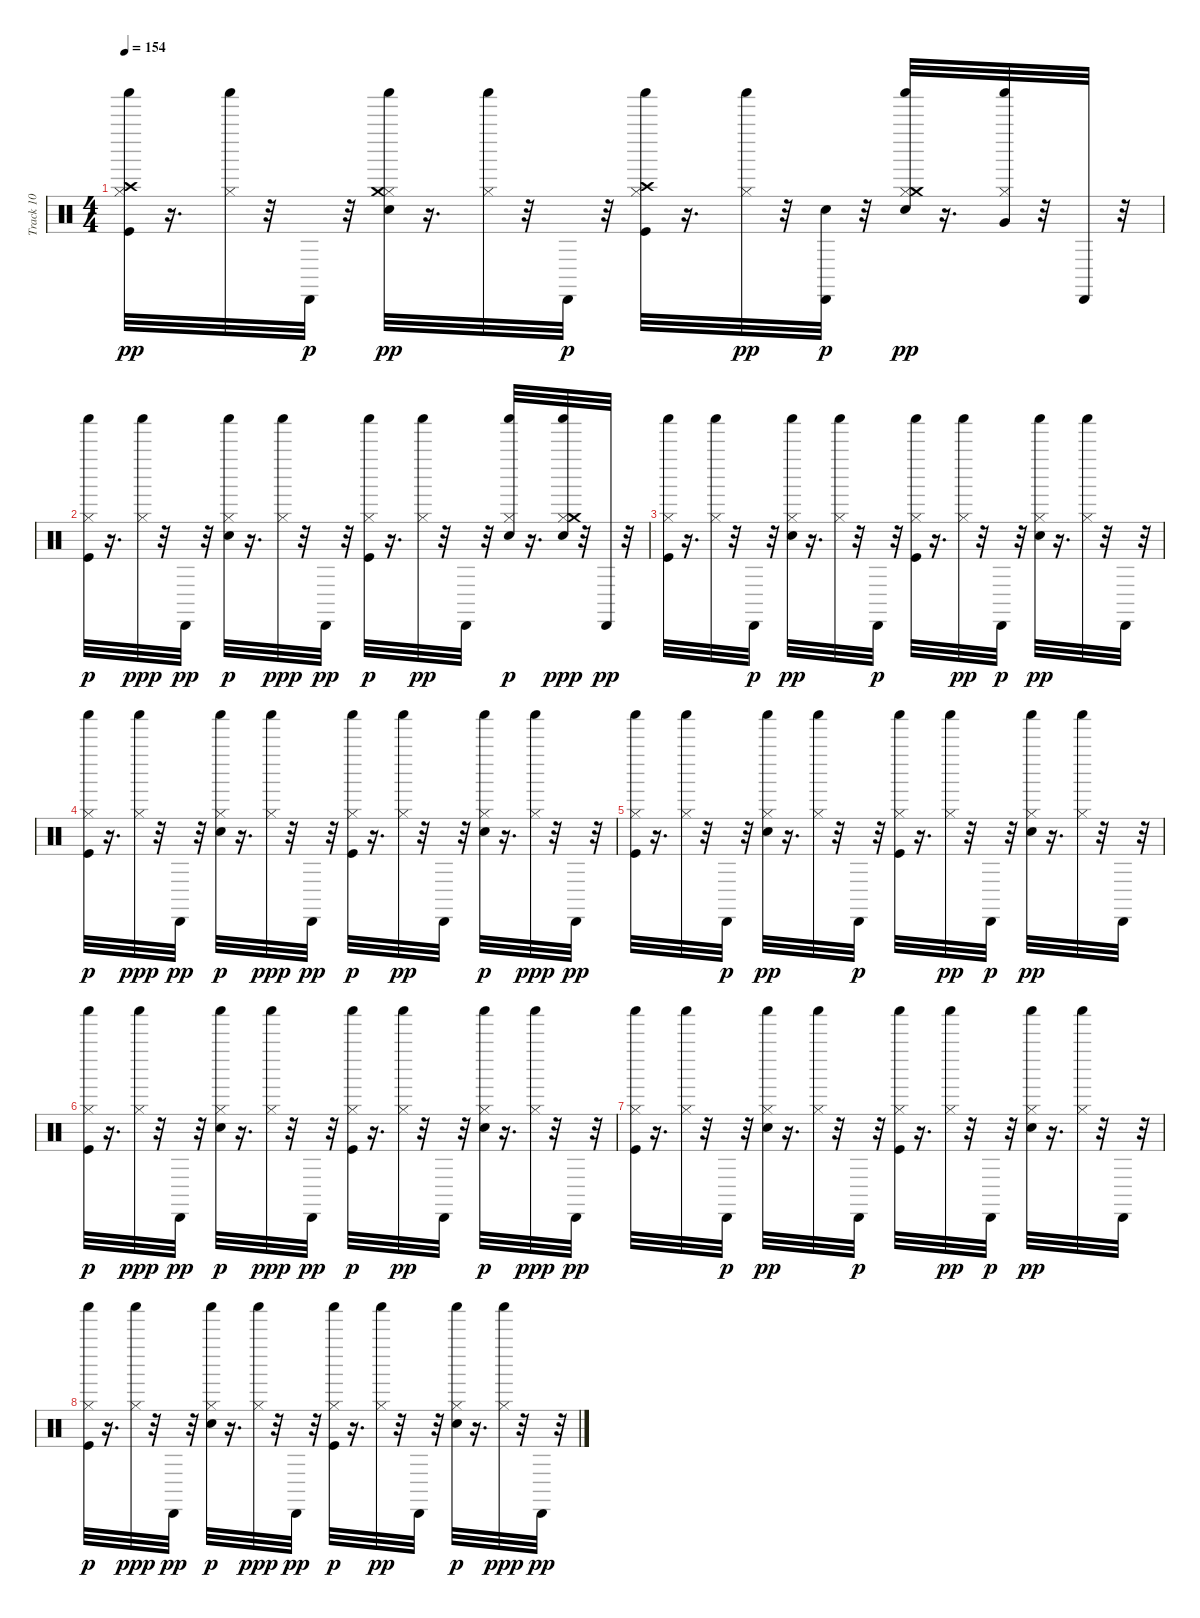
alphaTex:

\track ("Track 10" "Track 10") {instrument percussion}
\staff {score}
\articulation defaults
\ts (4 4)
\tempo 154
\clef neutral
\ks c
("Kick (hit)" "Hi-Hat (closed)" "Crash high (hit)" "Shaker (hit)").32{dy pp} r.16{d} ("Hi-Hat (closed)" "Shaker (hit)").32 r.32 "Cabasa (hit)".32{dy p} r.32 ("Electric Snare (hit)" "Hi-Hat (closed)" "Crash medium (hit)" "Shaker (hit)").32{dy pp} r.16{d} ("Hi-Hat (closed)" "Shaker (hit)").32 r.32 "Cabasa (hit)".32{dy p} r.32 ("Kick (hit)" "Hi-Hat (closed)" "Crash high (hit)" "Shaker (hit)").32 r.16{d} ("Hi-Hat (closed)" "Shaker (hit)").32{dy pp} r.32 ("Electric Snare (hit)" "Cabasa (hit)").32{dy p} r.32 ("Electric Snare (hit)" "Hi-Hat (closed)" "Crash medium (hit)" "Shaker (hit)").32{dy pp} r.16{d} ("Hi-Hat (closed)" "Very Low Tom (hit)" "Shaker (hit)").32 r.32 "Cabasa (hit)".32 r.32 |
("Kick (hit)" "Hi-Hat (closed)" "Shaker (hit)").32{dy p} r.16{d} ("Hi-Hat (closed)" "Shaker (hit)").32{dy ppp} r.32 "Cabasa (hit)".32{dy pp} r.32 ("Electric Snare (hit)" "Hi-Hat (closed)" "Shaker (hit)").32{dy p} r.16{d} ("Hi-Hat (closed)" "Shaker (hit)").32{dy ppp} r.32 "Cabasa (hit)".32{dy pp} r.32 ("Kick (hit)" "Hi-Hat (closed)" "Shaker (hit)").32{dy p} r.16{d} ("Hi-Hat (closed)" "Shaker (hit)").32{dy pp} r.32 "Cabasa (hit)".32 r.32 ("Electric Snare (hit)" "Hi-Hat (closed)" "Shaker (hit)").32{dy p} r.16{d} ("Electric Snare (hit)" "Hi-Hat (closed)" "Crash medium (hit)" "Shaker (hit)").32{dy ppp} r.32 "Cabasa (hit)".32{dy pp} r.32 |
("Kick (hit)" "Hi-Hat (closed)" "Shaker (hit)").32 r.16{d} ("Hi-Hat (closed)" "Shaker (hit)").32 r.32 "Cabasa (hit)".32{dy p} r.32 ("Electric Snare (hit)" "Hi-Hat (closed)" "Shaker (hit)").32{dy pp} r.16{d} ("Hi-Hat (closed)" "Shaker (hit)").32 r.32 "Cabasa (hit)".32{dy p} r.32 ("Kick (hit)" "Hi-Hat (closed)" "Shaker (hit)").32 r.16{d} ("Hi-Hat (closed)" "Shaker (hit)").32{dy pp} r.32 "Cabasa (hit)".32{dy p} r.32 ("Electric Snare (hit)" "Hi-Hat (closed)" "Shaker (hit)").32{dy pp} r.16{d} ("Hi-Hat (closed)" "Shaker (hit)").32 r.32 "Cabasa (hit)".32 r.32 |
("Kick (hit)" "Hi-Hat (closed)" "Shaker (hit)").32{dy p} r.16{d} ("Hi-Hat (closed)" "Shaker (hit)").32{dy ppp} r.32 "Cabasa (hit)".32{dy pp} r.32 ("Electric Snare (hit)" "Hi-Hat (closed)" "Shaker (hit)").32{dy p} r.16{d} ("Hi-Hat (closed)" "Shaker (hit)").32{dy ppp} r.32 "Cabasa (hit)".32{dy pp} r.32 ("Kick (hit)" "Hi-Hat (closed)" "Shaker (hit)").32{dy p} r.16{d} ("Hi-Hat (closed)" "Shaker (hit)").32{dy pp} r.32 "Cabasa (hit)".32 r.32 ("Electric Snare (hit)" "Hi-Hat (closed)" "Shaker (hit)").32{dy p} r.16{d} ("Hi-Hat (closed)" "Shaker (hit)").32{dy ppp} r.32 "Cabasa (hit)".32{dy pp} r.32 |
("Kick (hit)" "Hi-Hat (closed)" "Shaker (hit)").32 r.16{d} ("Hi-Hat (closed)" "Shaker (hit)").32 r.32 "Cabasa (hit)".32{dy p} r.32 ("Electric Snare (hit)" "Hi-Hat (closed)" "Shaker (hit)").32{dy pp} r.16{d} ("Hi-Hat (closed)" "Shaker (hit)").32 r.32 "Cabasa (hit)".32{dy p} r.32 ("Kick (hit)" "Hi-Hat (closed)" "Shaker (hit)").32 r.16{d} ("Hi-Hat (closed)" "Shaker (hit)").32{dy pp} r.32 "Cabasa (hit)".32{dy p} r.32 ("Electric Snare (hit)" "Hi-Hat (closed)" "Shaker (hit)").32{dy pp} r.16{d} ("Hi-Hat (closed)" "Shaker (hit)").32 r.32 "Cabasa (hit)".32 r.32 |
("Kick (hit)" "Hi-Hat (closed)" "Shaker (hit)").32{dy p} r.16{d} ("Hi-Hat (closed)" "Shaker (hit)").32{dy ppp} r.32 "Cabasa (hit)".32{dy pp} r.32 ("Electric Snare (hit)" "Hi-Hat (closed)" "Shaker (hit)").32{dy p} r.16{d} ("Hi-Hat (closed)" "Shaker (hit)").32{dy ppp} r.32 "Cabasa (hit)".32{dy pp} r.32 ("Kick (hit)" "Hi-Hat (closed)" "Shaker (hit)").32{dy p} r.16{d} ("Hi-Hat (closed)" "Shaker (hit)").32{dy pp} r.32 "Cabasa (hit)".32 r.32 ("Electric Snare (hit)" "Hi-Hat (closed)" "Shaker (hit)").32{dy p} r.16{d} ("Hi-Hat (closed)" "Shaker (hit)").32{dy ppp} r.32 "Cabasa (hit)".32{dy pp} r.32 |
("Kick (hit)" "Hi-Hat (closed)" "Shaker (hit)").32 r.16{d} ("Hi-Hat (closed)" "Shaker (hit)").32 r.32 "Cabasa (hit)".32{dy p} r.32 ("Electric Snare (hit)" "Hi-Hat (closed)" "Shaker (hit)").32{dy pp} r.16{d} ("Hi-Hat (closed)" "Shaker (hit)").32 r.32 "Cabasa (hit)".32{dy p} r.32 ("Kick (hit)" "Hi-Hat (closed)" "Shaker (hit)").32 r.16{d} ("Hi-Hat (closed)" "Shaker (hit)").32{dy pp} r.32 "Cabasa (hit)".32{dy p} r.32 ("Electric Snare (hit)" "Hi-Hat (closed)" "Shaker (hit)").32{dy pp} r.16{d} ("Hi-Hat (closed)" "Shaker (hit)").32 r.32 "Cabasa (hit)".32 r.32 |
("Kick (hit)" "Hi-Hat (closed)" "Shaker (hit)").32{dy p} r.16{d} ("Hi-Hat (closed)" "Shaker (hit)").32{dy ppp} r.32 "Cabasa (hit)".32{dy pp} r.32 ("Electric Snare (hit)" "Hi-Hat (closed)" "Shaker (hit)").32{dy p} r.16{d} ("Hi-Hat (closed)" "Shaker (hit)").32{dy ppp} r.32 "Cabasa (hit)".32{dy pp} r.32 ("Kick (hit)" "Hi-Hat (closed)" "Shaker (hit)").32{dy p} r.16{d} ("Hi-Hat (closed)" "Shaker (hit)").32{dy pp} r.32 "Cabasa (hit)".32 r.32 ("Electric Snare (hit)" "Hi-Hat (closed)" "Shaker (hit)").32{dy p} r.16{d} ("Hi-Hat (closed)" "Shaker (hit)").32{dy ppp} r.32 "Cabasa (hit)".32{dy pp} r.32
